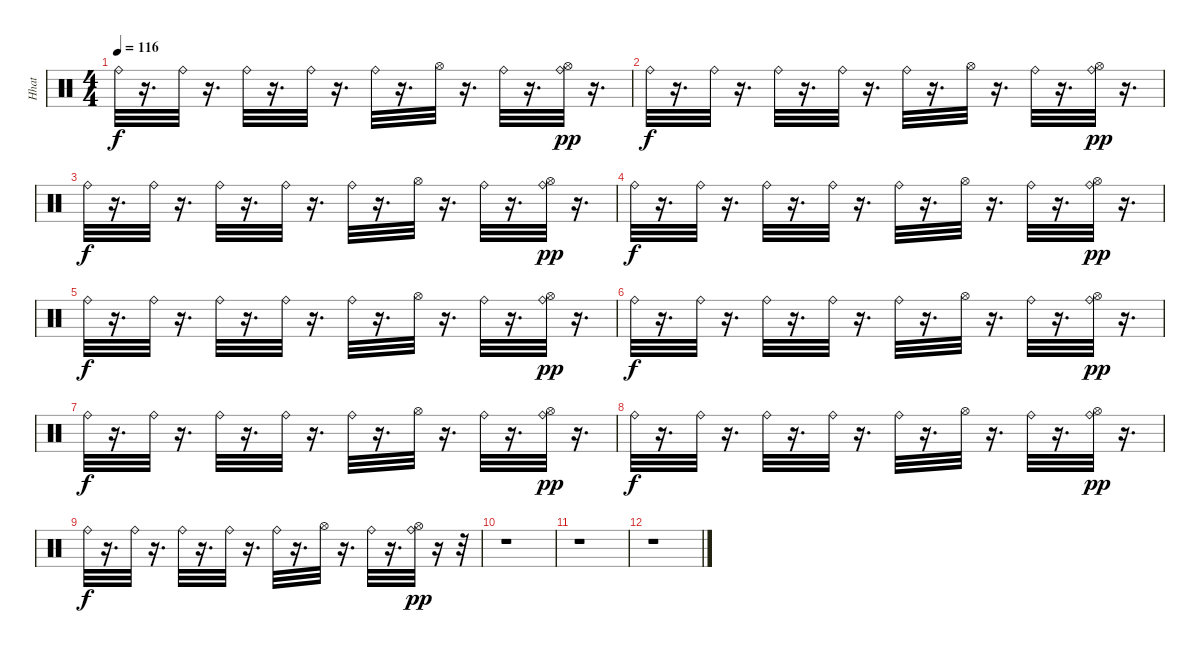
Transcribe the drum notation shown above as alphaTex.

\track ("Hhat" "Hhat") {instrument percussion}
\staff {score}
\articulation defaults
\ts (4 4)
\tempo 116
\clef neutral
\ks c "Ride (bell)".32{dy f}
r.16{d} "Ride (bell)".32 r.16{d} "Ride (bell)".32 r.16{d} "Ride (bell)".32 r.16{d} "Ride (bell)".32 r.16{d} "Hi-Hat (open)".32 r.16{d} "Ride (bell)".32 r.16{d} ("Ride (bell)" "Hi-Hat (open)").32{dy pp} r.16{d} |
"Ride (bell)".32{dy f} r.16{d} "Ride (bell)".32 r.16{d} "Ride (bell)".32 r.16{d} "Ride (bell)".32 r.16{d} "Ride (bell)".32 r.16{d} "Hi-Hat (open)".32 r.16{d} "Ride (bell)".32 r.16{d} ("Ride (bell)" "Hi-Hat (open)").32{dy pp} r.16{d} |
"Ride (bell)".32{dy f} r.16{d} "Ride (bell)".32 r.16{d} "Ride (bell)".32 r.16{d} "Ride (bell)".32 r.16{d} "Ride (bell)".32 r.16{d} "Hi-Hat (open)".32 r.16{d} "Ride (bell)".32 r.16{d} ("Ride (bell)" "Hi-Hat (open)").32{dy pp} r.16{d} |
"Ride (bell)".32{dy f} r.16{d} "Ride (bell)".32 r.16{d} "Ride (bell)".32 r.16{d} "Ride (bell)".32 r.16{d} "Ride (bell)".32 r.16{d} "Hi-Hat (open)".32 r.16{d} "Ride (bell)".32 r.16{d} ("Ride (bell)" "Hi-Hat (open)").32{dy pp} r.16{d} |
"Ride (bell)".32{dy f} r.16{d} "Ride (bell)".32 r.16{d} "Ride (bell)".32 r.16{d} "Ride (bell)".32 r.16{d} "Ride (bell)".32 r.16{d} "Hi-Hat (open)".32 r.16{d} "Ride (bell)".32 r.16{d} ("Ride (bell)" "Hi-Hat (open)").32{dy pp} r.16{d} |
"Ride (bell)".32{dy f} r.16{d} "Ride (bell)".32 r.16{d} "Ride (bell)".32 r.16{d} "Ride (bell)".32 r.16{d} "Ride (bell)".32 r.16{d} "Hi-Hat (open)".32 r.16{d} "Ride (bell)".32 r.16{d} ("Ride (bell)" "Hi-Hat (open)").32{dy pp} r.16{d} |
"Ride (bell)".32{dy f} r.16{d} "Ride (bell)".32 r.16{d} "Ride (bell)".32 r.16{d} "Ride (bell)".32 r.16{d} "Ride (bell)".32 r.16{d} "Hi-Hat (open)".32 r.16{d} "Ride (bell)".32 r.16{d} ("Ride (bell)" "Hi-Hat (open)").32{dy pp} r.16{d} |
"Ride (bell)".32{dy f} r.16{d} "Ride (bell)".32 r.16{d} "Ride (bell)".32 r.16{d} "Ride (bell)".32 r.16{d} "Ride (bell)".32 r.16{d} "Hi-Hat (open)".32 r.16{d} "Ride (bell)".32 r.16{d} ("Ride (bell)" "Hi-Hat (open)").32{dy pp} r.16{d} |
"Ride (bell)".32{dy f} r.16{d} "Ride (bell)".32 r.16{d} "Ride (bell)".32 r.16{d} "Ride (bell)".32 r.16{d} "Ride (bell)".32 r.16{d} "Hi-Hat (open)".32 r.16{d} "Ride (bell)".32 r.16{d} ("Ride (bell)" "Hi-Hat (open)").32{dy pp} r.16 r.32 |
r.1 |
r.1 |
r.1
